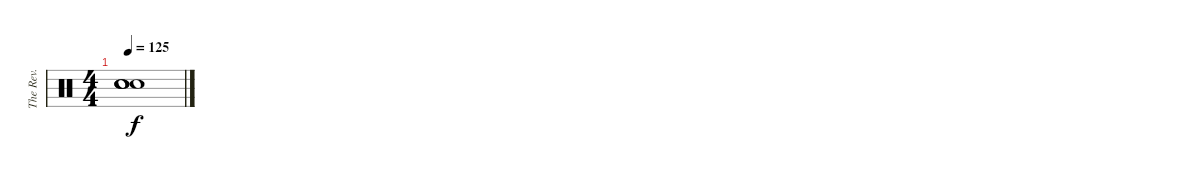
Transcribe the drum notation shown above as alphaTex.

\track ("The Rev." "The Rev.") {instrument percussion}
\staff {score}
\articulation defaults
\ts (4 4)
\tempo 125
\clef neutral
\ks c
("Snare (hit)"{t} "Snare (hit)"{t} "Snare (hit)"{t} "Snare (hit)"{t}).1{dy f}
